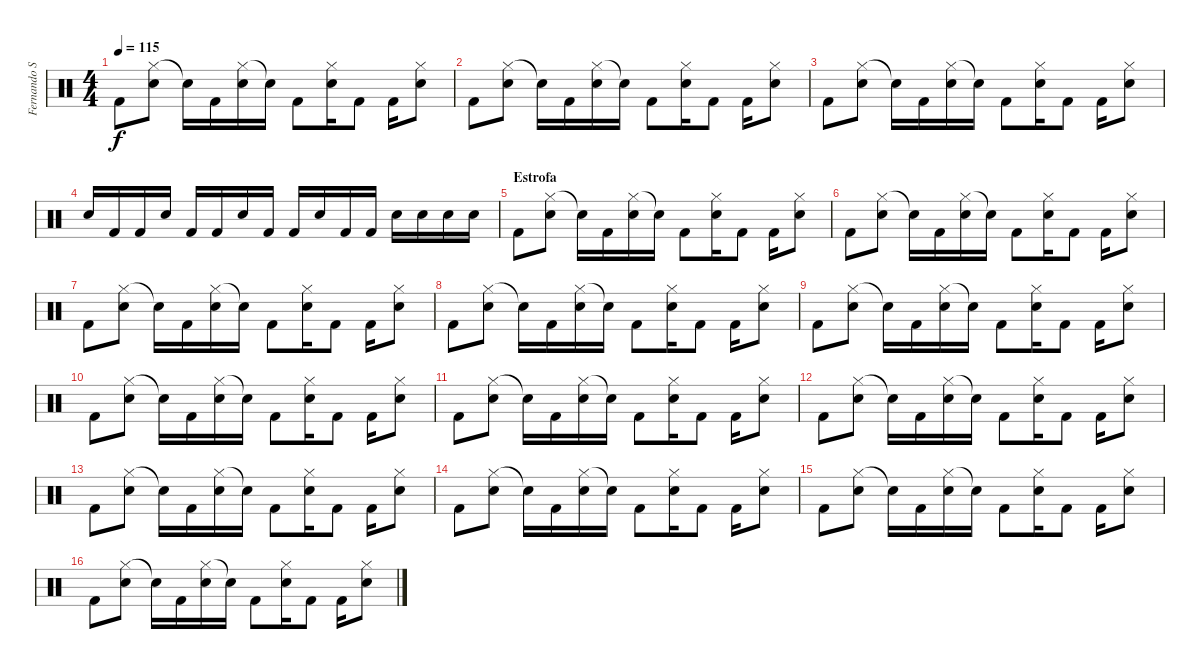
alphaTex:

\track ("Fernando Scarcella" "Fernando S") {instrument percussion}
\staff {score}
\articulation defaults
\ts (4 4)
\tempo 115
\clef neutral
\ks c "Kick (hit) 2".8{dy f}
("Hi-Hat (closed)" "Snare (hit) 2").8 "Snare (hit)"{t}.16 "Kick (hit) 2".16 ("Hi-Hat (closed)" "Snare (hit) 2").16 "Snare (hit)"{t}.16 "Kick (hit) 2".8 ("Hi-Hat (closed)" "Snare (hit) 2").16 "Kick (hit) 2".8 "Kick (hit) 2".16 ("Hi-Hat (closed)" "Snare (hit) 2").8 |
"Kick (hit) 2".8 ("Hi-Hat (closed)" "Snare (hit) 2").8 "Snare (hit)"{t}.16 "Kick (hit) 2".16 ("Hi-Hat (closed)" "Snare (hit) 2").16 "Snare (hit)"{t}.16 "Kick (hit) 2".8 ("Hi-Hat (closed)" "Snare (hit) 2").16 "Kick (hit) 2".8 "Kick (hit) 2".16 ("Hi-Hat (closed)" "Snare (hit) 2").8 |
"Kick (hit) 2".8 ("Hi-Hat (closed)" "Snare (hit) 2").8 "Snare (hit)"{t}.16 "Kick (hit) 2".16 ("Hi-Hat (closed)" "Snare (hit) 2").16 "Snare (hit)"{t}.16 "Kick (hit) 2".8 ("Hi-Hat (closed)" "Snare (hit) 2").16 "Kick (hit) 2".8 "Kick (hit) 2".16 ("Hi-Hat (closed)" "Snare (hit) 2").8 |
"Snare (hit) 2".16 "Kick (hit) 2".16 "Kick (hit) 2".16 "Snare (hit) 2".16 "Kick (hit) 2".16 "Kick (hit) 2".16 "Snare (hit) 2".16 "Kick (hit) 2".16 "Kick (hit) 2".16 "Snare (hit) 2".16 "Kick (hit) 2".16 "Kick (hit) 2".16 "Snare (hit) 2".16 "Snare (hit) 2".16 "Snare (hit) 2".16 "Snare (hit) 2".16 |
\section ("" "Estrofa")
"Kick (hit) 2".8 ("Hi-Hat (closed)" "Snare (hit) 2").8 "Snare (hit)"{t}.16 "Kick (hit) 2".16 ("Hi-Hat (closed)" "Snare (hit) 2").16 "Snare (hit)"{t}.16 "Kick (hit) 2".8 ("Hi-Hat (closed)" "Snare (hit) 2").16 "Kick (hit) 2".8 "Kick (hit) 2".16 ("Hi-Hat (closed)" "Snare (hit) 2").8 |
"Kick (hit) 2".8 ("Hi-Hat (closed)" "Snare (hit) 2").8 "Snare (hit)"{t}.16 "Kick (hit) 2".16 ("Hi-Hat (closed)" "Snare (hit) 2").16 "Snare (hit)"{t}.16 "Kick (hit) 2".8 ("Hi-Hat (closed)" "Snare (hit) 2").16 "Kick (hit) 2".8 "Kick (hit) 2".16 ("Hi-Hat (closed)" "Snare (hit) 2").8 |
"Kick (hit) 2".8 ("Hi-Hat (closed)" "Snare (hit) 2").8 "Snare (hit)"{t}.16 "Kick (hit) 2".16 ("Hi-Hat (closed)" "Snare (hit) 2").16 "Snare (hit)"{t}.16 "Kick (hit) 2".8 ("Hi-Hat (closed)" "Snare (hit) 2").16 "Kick (hit) 2".8 "Kick (hit) 2".16 ("Hi-Hat (closed)" "Snare (hit) 2").8 |
"Kick (hit) 2".8 ("Hi-Hat (closed)" "Snare (hit) 2").8 "Snare (hit)"{t}.16 "Kick (hit) 2".16 ("Hi-Hat (closed)" "Snare (hit) 2").16 "Snare (hit)"{t}.16 "Kick (hit) 2".8 ("Hi-Hat (closed)" "Snare (hit) 2").16 "Kick (hit) 2".8 "Kick (hit) 2".16 ("Hi-Hat (closed)" "Snare (hit) 2").8 |
"Kick (hit) 2".8 ("Hi-Hat (closed)" "Snare (hit) 2").8 "Snare (hit)"{t}.16 "Kick (hit) 2".16 ("Hi-Hat (closed)" "Snare (hit) 2").16 "Snare (hit)"{t}.16 "Kick (hit) 2".8 ("Hi-Hat (closed)" "Snare (hit) 2").16 "Kick (hit) 2".8 "Kick (hit) 2".16 ("Hi-Hat (closed)" "Snare (hit) 2").8 |
"Kick (hit) 2".8 ("Hi-Hat (closed)" "Snare (hit) 2").8 "Snare (hit)"{t}.16 "Kick (hit) 2".16 ("Hi-Hat (closed)" "Snare (hit) 2").16 "Snare (hit)"{t}.16 "Kick (hit) 2".8 ("Hi-Hat (closed)" "Snare (hit) 2").16 "Kick (hit) 2".8 "Kick (hit) 2".16 ("Hi-Hat (closed)" "Snare (hit) 2").8 |
"Kick (hit) 2".8 ("Hi-Hat (closed)" "Snare (hit) 2").8 "Snare (hit)"{t}.16 "Kick (hit) 2".16 ("Hi-Hat (closed)" "Snare (hit) 2").16 "Snare (hit)"{t}.16 "Kick (hit) 2".8 ("Hi-Hat (closed)" "Snare (hit) 2").16 "Kick (hit) 2".8 "Kick (hit) 2".16 ("Hi-Hat (closed)" "Snare (hit) 2").8 |
"Kick (hit) 2".8 ("Hi-Hat (closed)" "Snare (hit) 2").8 "Snare (hit)"{t}.16 "Kick (hit) 2".16 ("Hi-Hat (closed)" "Snare (hit) 2").16 "Snare (hit)"{t}.16 "Kick (hit) 2".8 ("Hi-Hat (closed)" "Snare (hit) 2").16 "Kick (hit) 2".8 "Kick (hit) 2".16 ("Hi-Hat (closed)" "Snare (hit) 2").8 |
"Kick (hit) 2".8 ("Hi-Hat (closed)" "Snare (hit) 2").8 "Snare (hit)"{t}.16 "Kick (hit) 2".16 ("Hi-Hat (closed)" "Snare (hit) 2").16 "Snare (hit)"{t}.16 "Kick (hit) 2".8 ("Hi-Hat (closed)" "Snare (hit) 2").16 "Kick (hit) 2".8 "Kick (hit) 2".16 ("Hi-Hat (closed)" "Snare (hit) 2").8 |
"Kick (hit) 2".8 ("Hi-Hat (closed)" "Snare (hit) 2").8 "Snare (hit)"{t}.16 "Kick (hit) 2".16 ("Hi-Hat (closed)" "Snare (hit) 2").16 "Snare (hit)"{t}.16 "Kick (hit) 2".8 ("Hi-Hat (closed)" "Snare (hit) 2").16 "Kick (hit) 2".8 "Kick (hit) 2".16 ("Hi-Hat (closed)" "Snare (hit) 2").8 |
"Kick (hit) 2".8 ("Hi-Hat (closed)" "Snare (hit) 2").8 "Snare (hit)"{t}.16 "Kick (hit) 2".16 ("Hi-Hat (closed)" "Snare (hit) 2").16 "Snare (hit)"{t}.16 "Kick (hit) 2".8 ("Hi-Hat (closed)" "Snare (hit) 2").16 "Kick (hit) 2".8 "Kick (hit) 2".16 ("Hi-Hat (closed)" "Snare (hit) 2").8 |
"Kick (hit) 2".8 ("Hi-Hat (closed)" "Snare (hit) 2").8 "Snare (hit)"{t}.16 "Kick (hit) 2".16 ("Hi-Hat (closed)" "Snare (hit) 2").16 "Snare (hit)"{t}.16 "Kick (hit) 2".8 ("Hi-Hat (closed)" "Snare (hit) 2").16 "Kick (hit) 2".8 "Kick (hit) 2".16 ("Hi-Hat (closed)" "Snare (hit) 2").8
